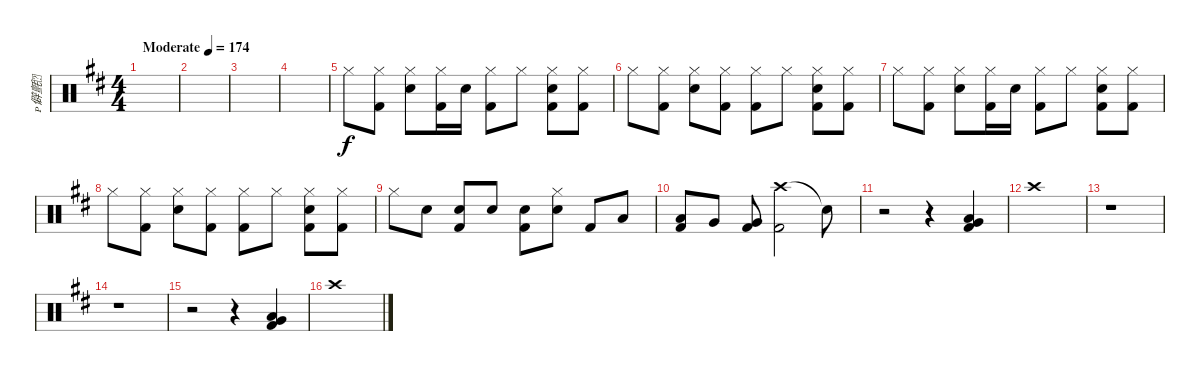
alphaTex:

\track ("僻氈" "僻氈") {instrument percussion}
\staff {score}
\articulation defaults
\ts (4 4)
\tempo (174 "Moderate")
\clef neutral
\ks d
|
|
|
|
"Hi-Hat (closed)".8 ("Hi-Hat (closed)" "Kick (hit) 2").8 ("Hi-Hat (closed)" "Electric Snare (hit)").8 ("Hi-Hat (closed)" "Kick (hit) 2").16 "Electric Snare (hit)".16 ("Hi-Hat (closed)" "Kick (hit) 2").8 "Hi-Hat (closed)".8 ("Hi-Hat (closed)" "Electric Snare (hit)" "Kick (hit) 2").8 ("Hi-Hat (closed)" "Kick (hit) 2").8 |
"Hi-Hat (closed)".8 ("Hi-Hat (closed)" "Kick (hit) 2").8 ("Hi-Hat (closed)" "Electric Snare (hit)").8 ("Hi-Hat (closed)" "Kick (hit) 2").8 ("Hi-Hat (closed)" "Kick (hit) 2").8 "Hi-Hat (closed)".8 ("Hi-Hat (closed)" "Electric Snare (hit)" "Kick (hit) 2").8 ("Hi-Hat (closed)" "Kick (hit) 2").8 |
"Hi-Hat (closed)".8 ("Hi-Hat (closed)" "Kick (hit) 2").8 ("Hi-Hat (closed)" "Electric Snare (hit)").8 ("Hi-Hat (closed)" "Kick (hit) 2").16 "Electric Snare (hit)".16 ("Hi-Hat (closed)" "Kick (hit) 2").8 "Hi-Hat (closed)".8 ("Hi-Hat (closed)" "Electric Snare (hit)" "Kick (hit) 2").8 ("Hi-Hat (closed)" "Kick (hit) 2").8 |
"Hi-Hat (closed)".8 ("Hi-Hat (closed)" "Kick (hit) 2").8 ("Hi-Hat (closed)" "Electric Snare (hit)").8 ("Hi-Hat (closed)" "Kick (hit) 2").8 ("Hi-Hat (closed)" "Kick (hit) 2").8 "Hi-Hat (closed)".8 ("Hi-Hat (closed)" "Electric Snare (hit)" "Kick (hit) 2").8 ("Hi-Hat (closed)" "Kick (hit) 2").8 |
"Hi-Hat (closed)".8 "Electric Snare (hit)".8 ("Electric Snare (hit)" "Kick (hit) 2").8 "Electric Snare (hit)".8 ("Electric Snare (hit)" "Kick (hit) 2").8 ("Hi-Hat (closed)" "Electric Snare (hit)").8 "Kick (hit) 2".8 "Low Tom (hit)".8 |
("Low Tom (hit)" "Kick (hit) 2").8 "Very Low Tom (hit)".8 ("Very Low Tom (hit)" "Kick (hit) 2").8 ("Crash high (hit)" "Kick (hit) 2").2 "Snare (hit)"{t}.8 |
r.2 r.4 ("Low Tom (hit)" "Very Low Tom (hit)" "Kick (hit) 2").4 |
"Crash high (hit)".1 |
r.1 |
r.1 |
r.2 r.4 ("Low Tom (hit)" "Very Low Tom (hit)" "Kick (hit) 2").4 |
"Crash high (hit)".1
